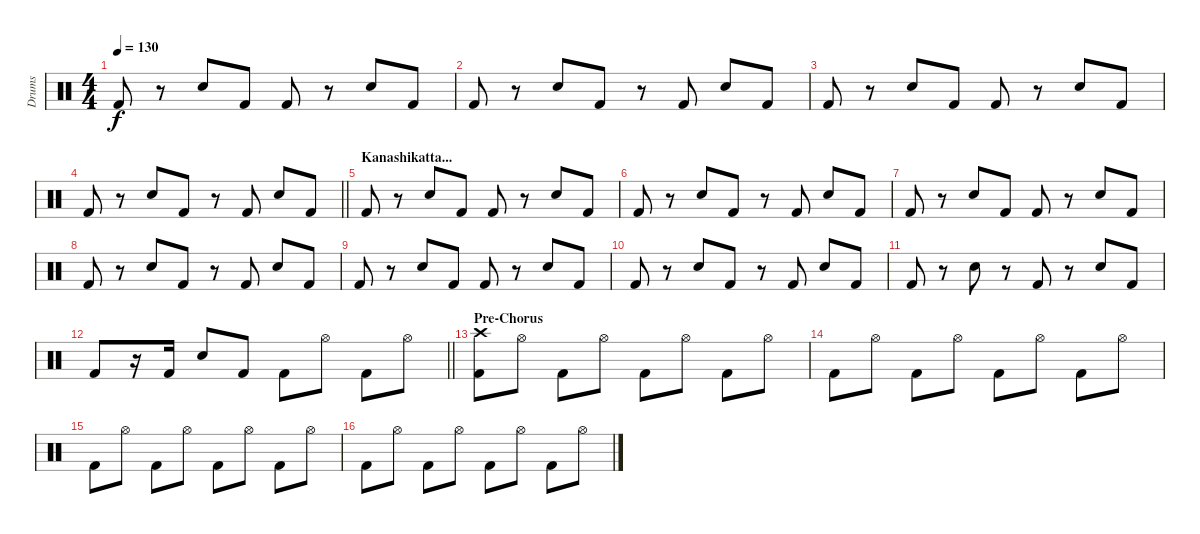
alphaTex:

\track ("Drums" "Drums") {instrument percussion}
\staff {score}
\articulation defaults
\ts (4 4)
\tempo 130
\clef neutral
\ks c "Kick (hit) 2".8{dy f}
r.8 "Electric Snare (hit)".8 "Kick (hit) 2".8 "Kick (hit) 2".8 r.8 "Electric Snare (hit)".8 "Kick (hit) 2".8 |
"Kick (hit) 2".8 r.8 "Electric Snare (hit)".8 "Kick (hit) 2".8 r.8 "Kick (hit) 2".8 "Electric Snare (hit)".8 "Kick (hit) 2".8 |
"Kick (hit) 2".8 r.8 "Electric Snare (hit)".8 "Kick (hit) 2".8 "Kick (hit) 2".8 r.8 "Electric Snare (hit)".8 "Kick (hit) 2".8 |
\barLineRight lightlight "Kick (hit) 2".8
r.8 "Electric Snare (hit)".8 "Kick (hit) 2".8 r.8 "Kick (hit) 2".8 "Electric Snare (hit)".8 "Kick (hit) 2".8 |
\section ("" "Kanashikatta...")
"Kick (hit) 2".8 r.8 "Electric Snare (hit)".8 "Kick (hit) 2".8 "Kick (hit) 2".8 r.8 "Electric Snare (hit)".8 "Kick (hit) 2".8 |
"Kick (hit) 2".8 r.8 "Electric Snare (hit)".8 "Kick (hit) 2".8 r.8 "Kick (hit) 2".8 "Electric Snare (hit)".8 "Kick (hit) 2".8 |
"Kick (hit) 2".8 r.8 "Electric Snare (hit)".8 "Kick (hit) 2".8 "Kick (hit) 2".8 r.8 "Electric Snare (hit)".8 "Kick (hit) 2".8 |
"Kick (hit) 2".8 r.8 "Electric Snare (hit)".8 "Kick (hit) 2".8 r.8 "Kick (hit) 2".8 "Electric Snare (hit)".8 "Kick (hit) 2".8 |
"Kick (hit) 2".8 r.8 "Electric Snare (hit)".8 "Kick (hit) 2".8 "Kick (hit) 2".8 r.8 "Electric Snare (hit)".8 "Kick (hit) 2".8 |
"Kick (hit) 2".8 r.8 "Electric Snare (hit)".8 "Kick (hit) 2".8 r.8 "Kick (hit) 2".8 "Electric Snare (hit)".8 "Kick (hit) 2".8 |
"Kick (hit) 2".8 r.8 "Electric Snare (hit)".8 r.8 "Kick (hit) 2".8 r.8 "Electric Snare (hit)".8 "Kick (hit) 2".8 |
\barLineRight lightlight "Kick (hit) 2".8
r.16 "Kick (hit) 2".16 "Electric Snare (hit)".8 "Kick (hit) 2".8 "Kick (hit) 2".8 "Hi-Hat (open)".8 "Kick (hit) 2".8 "Hi-Hat (open)".8 |
\section ("" "Pre-Chorus")
("Kick (hit) 2" "Crash high (hit)").8 "Hi-Hat (open)".8 "Kick (hit) 2".8 "Hi-Hat (open)".8 "Kick (hit) 2".8 "Hi-Hat (open)".8 "Kick (hit) 2".8 "Hi-Hat (open)".8 |
"Kick (hit) 2".8 "Hi-Hat (open)".8 "Kick (hit) 2".8 "Hi-Hat (open)".8 "Kick (hit) 2".8 "Hi-Hat (open)".8 "Kick (hit) 2".8 "Hi-Hat (open)".8 |
"Kick (hit) 2".8 "Hi-Hat (open)".8 "Kick (hit) 2".8 "Hi-Hat (open)".8 "Kick (hit) 2".8 "Hi-Hat (open)".8 "Kick (hit) 2".8 "Hi-Hat (open)".8 |
"Kick (hit) 2".8 "Hi-Hat (open)".8 "Kick (hit) 2".8 "Hi-Hat (open)".8 "Kick (hit) 2".8 "Hi-Hat (open)".8 "Kick (hit) 2".8 "Hi-Hat (open)".8
